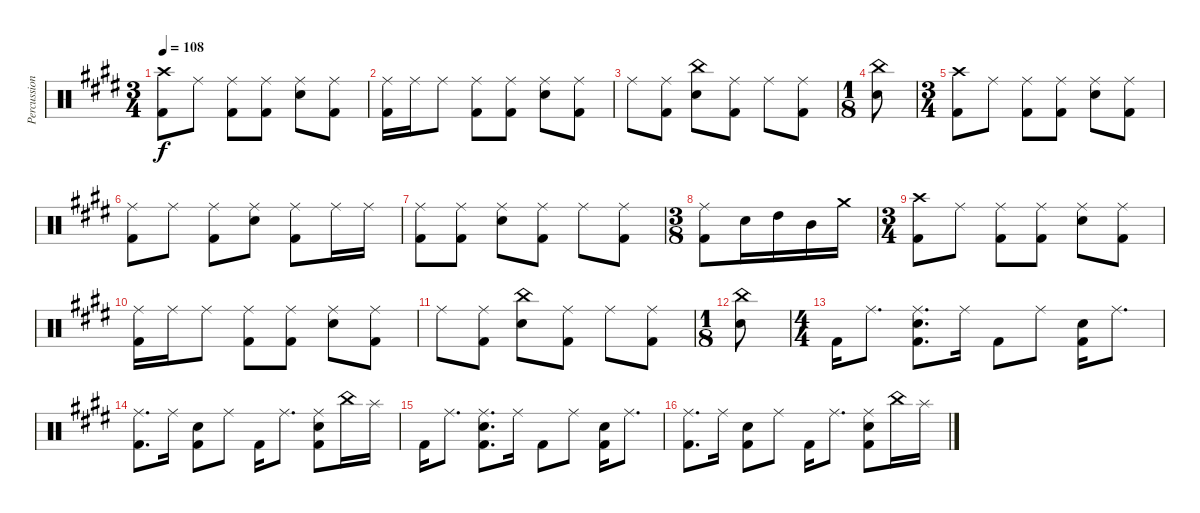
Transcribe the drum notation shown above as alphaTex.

\track ("Percussion" "Percussion") {instrument percussion}
\staff {score}
\articulation defaults
\ts (3 4)
\tempo 108
\clef neutral
\ks e
("Crash high (hit)" "Kick (hit) 2").8{dy f} "Ride (middle)".8 ("Ride (middle)" "Kick (hit) 2").8 ("Ride (middle)" "Kick (hit) 2").8 ("Ride (middle)" "Electric Snare (hit)").8 ("Ride (middle)" "Kick (hit) 2").8 |
("Ride (middle)" "Kick (hit) 2").16 "Ride (middle)".16 "Ride (middle)".8 ("Ride (middle)" "Kick (hit) 2").8 ("Ride (middle)" "Kick (hit) 2").8 ("Ride (middle)" "Electric Snare (hit)").8 ("Ride (middle)" "Kick (hit) 2").8 |
"Ride (middle)".8 ("Ride (middle)" "Kick (hit) 2").8 ("China (hit)" "Electric Snare (hit)").8 ("Ride (middle)" "Kick (hit) 2").8 "Ride (middle)".8 ("Ride (middle)" "Kick (hit) 2").8 |
\ts (1 8)
("China (hit)" "Electric Snare (hit)").8 |
\ts (3 4)
("Crash high (hit)" "Kick (hit) 2").8 "Ride (middle)".8 ("Ride (middle)" "Kick (hit) 2").8 ("Ride (middle)" "Kick (hit) 2").8 ("Ride (middle)" "Electric Snare (hit)").8 ("Ride (middle)" "Kick (hit) 2").8 |
("Ride (middle)" "Kick (hit) 2").8 "Ride (middle)".8 ("Ride (middle)" "Kick (hit) 2").8 ("Ride (middle)" "Electric Snare (hit)").8 ("Ride (middle)" "Kick (hit) 2").8 "Ride (middle)".16 "Ride (middle)".16 |
("Ride (middle)" "Kick (hit) 2").8 ("Ride (middle)" "Kick (hit) 2").8 ("Ride (middle)" "Electric Snare (hit)").8 ("Ride (middle)" "Kick (hit) 2").8 "Ride (middle)".8 ("Ride (middle)" "Kick (hit) 2").8 |
\ts (3 8)
("Ride (middle)" "Kick (hit) 2").8 "Electric Snare (hit)".16 "High Tom (hit)".16 "Mid Tom (hit)".16 "Crash medium (hit)".16 |
\ts (3 4)
("Crash high (hit)" "Kick (hit) 2").8 "Ride (middle)".8 ("Ride (middle)" "Kick (hit) 2").8 ("Ride (middle)" "Kick (hit) 2").8 ("Ride (middle)" "Electric Snare (hit)").8 ("Ride (middle)" "Kick (hit) 2").8 |
("Ride (middle)" "Kick (hit) 2").16 "Ride (middle)".16 "Ride (middle)".8 ("Ride (middle)" "Kick (hit) 2").8 ("Ride (middle)" "Kick (hit) 2").8 ("Ride (middle)" "Electric Snare (hit)").8 ("Ride (middle)" "Kick (hit) 2").8 |
"Ride (middle)".8 ("Ride (middle)" "Kick (hit) 2").8 ("China (hit)" "Electric Snare (hit)").8 ("Ride (middle)" "Kick (hit) 2").8 "Ride (middle)".8 ("Ride (middle)" "Kick (hit) 2").8 |
\ts (1 8)
("China (hit)" "Electric Snare (hit)").8 |
\ts (4 4)
"Kick (hit) 2".16 "Ride (middle)".8{d} ("Ride (middle)" "Electric Snare (hit)" "Kick (hit) 2").8{d} "Ride (middle)".16 "Kick (hit) 2".8 "Ride (middle)".8 ("Electric Snare (hit)" "Kick (hit) 2").16 "Ride (middle)".8{d} |
("Ride (middle)" "Kick (hit) 2").8{d} "Ride (middle)".16 ("Electric Snare (hit)" "Kick (hit) 2").8 "Ride (middle)".8 "Kick (hit) 2".16 "Ride (middle)".8{d} ("Ride (middle)" "Electric Snare (hit)" "Kick (hit) 2").8 "China (hit)".16 "Splash (hit)".16 |
"Kick (hit) 2".16 "Ride (middle)".8{d} ("Ride (middle)" "Electric Snare (hit)" "Kick (hit) 2").8{d} "Ride (middle)".16 "Kick (hit) 2".8 "Ride (middle)".8 ("Electric Snare (hit)" "Kick (hit) 2").16 "Ride (middle)".8{d} |
("Ride (middle)" "Kick (hit) 2").8{d} "Ride (middle)".16 ("Electric Snare (hit)" "Kick (hit) 2").8 "Ride (middle)".8 "Kick (hit) 2".16 "Ride (middle)".8{d} ("Ride (middle)" "Electric Snare (hit)" "Kick (hit) 2").8 "China (hit)".16 "Splash (hit)".16
